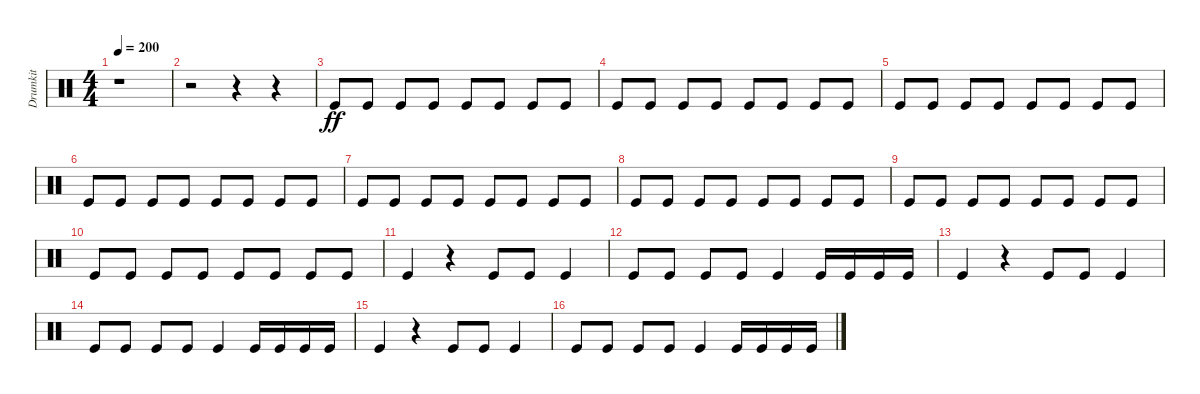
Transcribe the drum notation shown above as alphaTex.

\track ("Drumkit" "Drumkit") {instrument percussion}
\staff {score}
\articulation defaults
\ts (4 4)
\tempo 200
\clef neutral
\ks c
r.1{dy ff} |
r.2 r.4 r.4 |
"Kick (hit)".8 "Kick (hit)".8 "Kick (hit)".8 "Kick (hit)".8 "Kick (hit)".8 "Kick (hit)".8 "Kick (hit)".8 "Kick (hit)".8 |
"Kick (hit)".8 "Kick (hit)".8 "Kick (hit)".8 "Kick (hit)".8 "Kick (hit)".8 "Kick (hit)".8 "Kick (hit)".8 "Kick (hit)".8 |
"Kick (hit)".8 "Kick (hit)".8 "Kick (hit)".8 "Kick (hit)".8 "Kick (hit)".8 "Kick (hit)".8 "Kick (hit)".8 "Kick (hit)".8 |
"Kick (hit)".8 "Kick (hit)".8 "Kick (hit)".8 "Kick (hit)".8 "Kick (hit)".8 "Kick (hit)".8 "Kick (hit)".8 "Kick (hit)".8 |
"Kick (hit)".8 "Kick (hit)".8 "Kick (hit)".8 "Kick (hit)".8 "Kick (hit)".8 "Kick (hit)".8 "Kick (hit)".8 "Kick (hit)".8 |
"Kick (hit)".8 "Kick (hit)".8 "Kick (hit)".8 "Kick (hit)".8 "Kick (hit)".8 "Kick (hit)".8 "Kick (hit)".8 "Kick (hit)".8 |
"Kick (hit)".8 "Kick (hit)".8 "Kick (hit)".8 "Kick (hit)".8 "Kick (hit)".8 "Kick (hit)".8 "Kick (hit)".8 "Kick (hit)".8 |
"Kick (hit)".8 "Kick (hit)".8 "Kick (hit)".8 "Kick (hit)".8 "Kick (hit)".8 "Kick (hit)".8 "Kick (hit)".8 "Kick (hit)".8 |
"Kick (hit)".4 r.4 "Kick (hit)".8 "Kick (hit)".8 "Kick (hit)".4 |
"Kick (hit)".8 "Kick (hit)".8 "Kick (hit)".8 "Kick (hit)".8 "Kick (hit)".4 "Kick (hit)".16 "Kick (hit)".16 "Kick (hit)".16 "Kick (hit)".16 |
"Kick (hit)".4 r.4 "Kick (hit)".8 "Kick (hit)".8 "Kick (hit)".4 |
"Kick (hit)".8 "Kick (hit)".8 "Kick (hit)".8 "Kick (hit)".8 "Kick (hit)".4 "Kick (hit)".16 "Kick (hit)".16 "Kick (hit)".16 "Kick (hit)".16 |
"Kick (hit)".4 r.4 "Kick (hit)".8 "Kick (hit)".8 "Kick (hit)".4 |
"Kick (hit)".8 "Kick (hit)".8 "Kick (hit)".8 "Kick (hit)".8 "Kick (hit)".4 "Kick (hit)".16 "Kick (hit)".16 "Kick (hit)".16 "Kick (hit)".16
